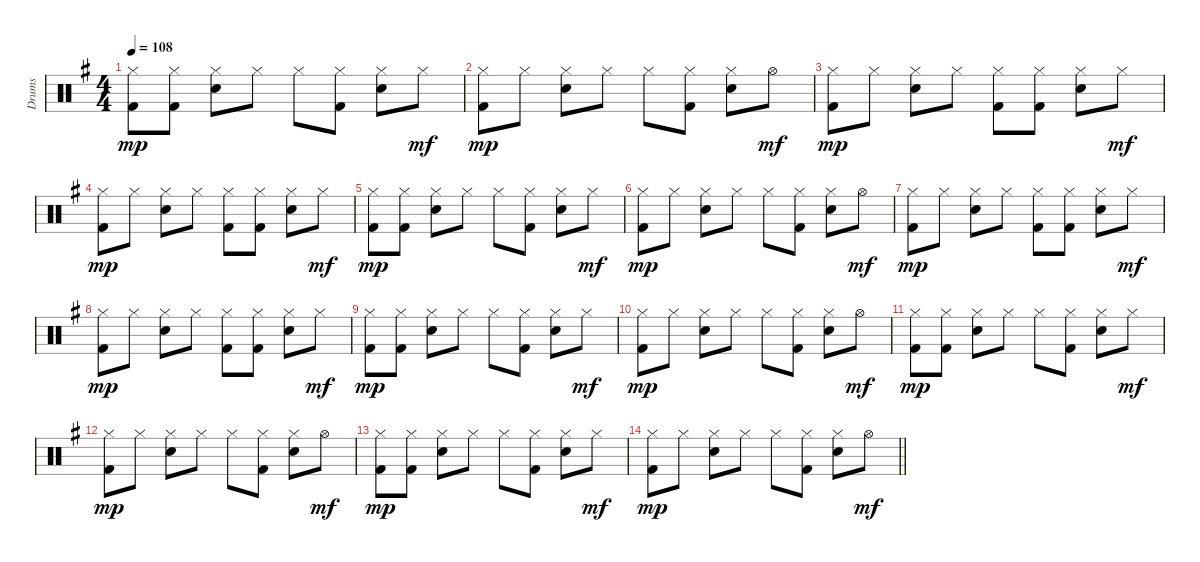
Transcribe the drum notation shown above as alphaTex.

\track ("Drums" "Drums") {instrument percussion}
\staff {score}
\articulation defaults
\ts (4 4)
\tempo 108
\clef neutral
\ks g
("Hi-Hat (closed)" "Kick (hit) 2").8{dy mp} ("Hi-Hat (closed)" "Kick (hit) 2").8 ("Hi-Hat (closed)" "Snare (hit) 2").8 "Hi-Hat (closed)".8 "Hi-Hat (closed)".8 ("Hi-Hat (closed)" "Kick (hit) 2").8 ("Hi-Hat (closed)" "Snare (hit) 2").8 "Hi-Hat (closed)".8{dy mf} |
("Hi-Hat (closed)" "Kick (hit) 2").8{dy mp} "Hi-Hat (closed)".8 ("Hi-Hat (closed)" "Snare (hit) 2").8 "Hi-Hat (closed)".8 "Hi-Hat (closed)".8 ("Hi-Hat (closed)" "Kick (hit) 2").8 ("Hi-Hat (closed)" "Snare (hit) 2").8 "Hi-Hat (open)".8{dy mf} |
("Hi-Hat (closed)" "Kick (hit) 2").8{dy mp} "Hi-Hat (closed)".8 ("Hi-Hat (closed)" "Snare (hit) 2").8 "Hi-Hat (closed)".8 ("Hi-Hat (closed)" "Kick (hit) 2").8 ("Hi-Hat (closed)" "Kick (hit) 2").8 ("Hi-Hat (closed)" "Snare (hit) 2").8 "Hi-Hat (closed)".8{dy mf} |
("Hi-Hat (closed)" "Kick (hit) 2").8{dy mp} "Hi-Hat (closed)".8 ("Hi-Hat (closed)" "Snare (hit) 2").8 "Hi-Hat (closed)".8 ("Hi-Hat (closed)" "Kick (hit) 2").8 ("Hi-Hat (closed)" "Kick (hit) 2").8 ("Hi-Hat (closed)" "Snare (hit) 2").8 "Hi-Hat (closed)".8{dy mf} |
("Hi-Hat (closed)" "Kick (hit) 2").8{dy mp} ("Hi-Hat (closed)" "Kick (hit) 2").8 ("Hi-Hat (closed)" "Snare (hit) 2").8 "Hi-Hat (closed)".8 "Hi-Hat (closed)".8 ("Hi-Hat (closed)" "Kick (hit) 2").8 ("Hi-Hat (closed)" "Snare (hit) 2").8 "Hi-Hat (closed)".8{dy mf} |
("Hi-Hat (closed)" "Kick (hit) 2").8{dy mp} "Hi-Hat (closed)".8 ("Hi-Hat (closed)" "Snare (hit) 2").8 "Hi-Hat (closed)".8 "Hi-Hat (closed)".8 ("Hi-Hat (closed)" "Kick (hit) 2").8 ("Hi-Hat (closed)" "Snare (hit) 2").8 "Hi-Hat (open)".8{dy mf} |
("Hi-Hat (closed)" "Kick (hit) 2").8{dy mp} "Hi-Hat (closed)".8 ("Hi-Hat (closed)" "Snare (hit) 2").8 "Hi-Hat (closed)".8 ("Hi-Hat (closed)" "Kick (hit) 2").8 ("Hi-Hat (closed)" "Kick (hit) 2").8 ("Hi-Hat (closed)" "Snare (hit) 2").8 "Hi-Hat (closed)".8{dy mf} |
("Hi-Hat (closed)" "Kick (hit) 2").8{dy mp} "Hi-Hat (closed)".8 ("Hi-Hat (closed)" "Snare (hit) 2").8 "Hi-Hat (closed)".8 ("Hi-Hat (closed)" "Kick (hit) 2").8 ("Hi-Hat (closed)" "Kick (hit) 2").8 ("Hi-Hat (closed)" "Snare (hit) 2").8 "Hi-Hat (closed)".8{dy mf} |
("Hi-Hat (closed)" "Kick (hit) 2").8{dy mp} ("Hi-Hat (closed)" "Kick (hit) 2").8 ("Hi-Hat (closed)" "Snare (hit) 2").8 "Hi-Hat (closed)".8 "Hi-Hat (closed)".8 ("Hi-Hat (closed)" "Kick (hit) 2").8 ("Hi-Hat (closed)" "Snare (hit) 2").8 "Hi-Hat (closed)".8{dy mf} |
("Hi-Hat (closed)" "Kick (hit) 2").8{dy mp} "Hi-Hat (closed)".8 ("Hi-Hat (closed)" "Snare (hit) 2").8 "Hi-Hat (closed)".8 "Hi-Hat (closed)".8 ("Hi-Hat (closed)" "Kick (hit) 2").8 ("Hi-Hat (closed)" "Snare (hit) 2").8 "Hi-Hat (open)".8{dy mf} |
("Hi-Hat (closed)" "Kick (hit) 2").8{dy mp volume 2} ("Hi-Hat (closed)" "Kick (hit) 2").8 ("Hi-Hat (closed)" "Snare (hit) 2").8 "Hi-Hat (closed)".8 "Hi-Hat (closed)".8 ("Hi-Hat (closed)" "Kick (hit) 2").8 ("Hi-Hat (closed)" "Snare (hit) 2").8 "Hi-Hat (closed)".8{dy mf} |
("Hi-Hat (closed)" "Kick (hit) 2").8{dy mp} "Hi-Hat (closed)".8 ("Hi-Hat (closed)" "Snare (hit) 2").8 "Hi-Hat (closed)".8 "Hi-Hat (closed)".8 ("Hi-Hat (closed)" "Kick (hit) 2").8 ("Hi-Hat (closed)" "Snare (hit) 2").8 "Hi-Hat (open)".8{dy mf} |
("Hi-Hat (closed)" "Kick (hit) 2").8{dy mp} ("Hi-Hat (closed)" "Kick (hit) 2").8 ("Hi-Hat (closed)" "Snare (hit) 2").8 "Hi-Hat (closed)".8 "Hi-Hat (closed)".8 ("Hi-Hat (closed)" "Kick (hit) 2").8 ("Hi-Hat (closed)" "Snare (hit) 2").8 "Hi-Hat (closed)".8{dy mf} |
\barLineRight lightlight
("Hi-Hat (closed)" "Kick (hit) 2").8{dy mp} "Hi-Hat (closed)".8 ("Hi-Hat (closed)" "Snare (hit) 2").8 "Hi-Hat (closed)".8 "Hi-Hat (closed)".8 ("Hi-Hat (closed)" "Kick (hit) 2").8 ("Hi-Hat (closed)" "Snare (hit) 2").8 "Hi-Hat (open)".8{dy mf}
